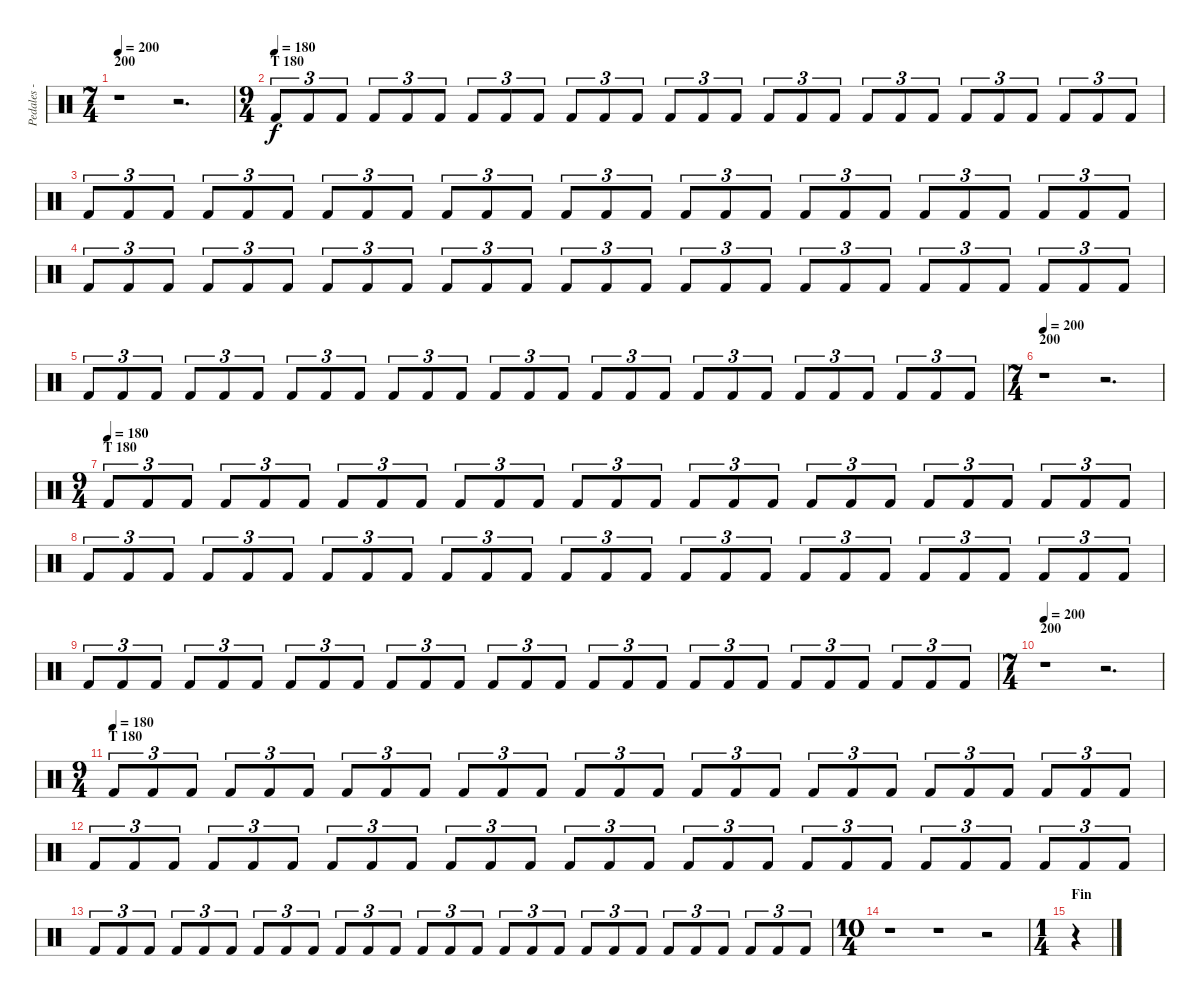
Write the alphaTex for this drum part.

\track ("Pedales - Compa" "Pedales - ") {instrument percussion}
\staff {score}
\articulation defaults
\ts (7 4)
\section ("" "200")
\tempo 200
\clef neutral
\ks c
r.1{dy f} r.2{d} |
\ts (9 4)
\section ("" "T 180")
\tempo (180)
"Kick (hit) 2".8{tu (3 2)} "Kick (hit) 2".8{tu (3 2)} "Kick (hit) 2".8{tu (3 2)} "Kick (hit) 2".8{tu (3 2)} "Kick (hit) 2".8{tu (3 2)} "Kick (hit) 2".8{tu (3 2)} "Kick (hit) 2".8{tu (3 2)} "Kick (hit) 2".8{tu (3 2)} "Kick (hit) 2".8{tu (3 2)} "Kick (hit) 2".8{tu (3 2)} "Kick (hit) 2".8{tu (3 2)} "Kick (hit) 2".8{tu (3 2)} "Kick (hit) 2".8{tu (3 2)} "Kick (hit) 2".8{tu (3 2)} "Kick (hit) 2".8{tu (3 2)} "Kick (hit) 2".8{tu (3 2)} "Kick (hit) 2".8{tu (3 2)} "Kick (hit) 2".8{tu (3 2)} "Kick (hit) 2".8{tu (3 2)} "Kick (hit) 2".8{tu (3 2)} "Kick (hit) 2".8{tu (3 2)} "Kick (hit) 2".8{tu (3 2)} "Kick (hit) 2".8{tu (3 2)} "Kick (hit) 2".8{tu (3 2)} "Kick (hit) 2".8{tu (3 2)} "Kick (hit) 2".8{tu (3 2)} "Kick (hit) 2".8{tu (3 2)} |
"Kick (hit) 2".8{tu (3 2)} "Kick (hit) 2".8{tu (3 2)} "Kick (hit) 2".8{tu (3 2)} "Kick (hit) 2".8{tu (3 2)} "Kick (hit) 2".8{tu (3 2)} "Kick (hit) 2".8{tu (3 2)} "Kick (hit) 2".8{tu (3 2)} "Kick (hit) 2".8{tu (3 2)} "Kick (hit) 2".8{tu (3 2)} "Kick (hit) 2".8{tu (3 2)} "Kick (hit) 2".8{tu (3 2)} "Kick (hit) 2".8{tu (3 2)} "Kick (hit) 2".8{tu (3 2)} "Kick (hit) 2".8{tu (3 2)} "Kick (hit) 2".8{tu (3 2)} "Kick (hit) 2".8{tu (3 2)} "Kick (hit) 2".8{tu (3 2)} "Kick (hit) 2".8{tu (3 2)} "Kick (hit) 2".8{tu (3 2)} "Kick (hit) 2".8{tu (3 2)} "Kick (hit) 2".8{tu (3 2)} "Kick (hit) 2".8{tu (3 2)} "Kick (hit) 2".8{tu (3 2)} "Kick (hit) 2".8{tu (3 2)} "Kick (hit) 2".8{tu (3 2)} "Kick (hit) 2".8{tu (3 2)} "Kick (hit) 2".8{tu (3 2)} |
"Kick (hit) 2".8{tu (3 2)} "Kick (hit) 2".8{tu (3 2)} "Kick (hit) 2".8{tu (3 2)} "Kick (hit) 2".8{tu (3 2)} "Kick (hit) 2".8{tu (3 2)} "Kick (hit) 2".8{tu (3 2)} "Kick (hit) 2".8{tu (3 2)} "Kick (hit) 2".8{tu (3 2)} "Kick (hit) 2".8{tu (3 2)} "Kick (hit) 2".8{tu (3 2)} "Kick (hit) 2".8{tu (3 2)} "Kick (hit) 2".8{tu (3 2)} "Kick (hit) 2".8{tu (3 2)} "Kick (hit) 2".8{tu (3 2)} "Kick (hit) 2".8{tu (3 2)} "Kick (hit) 2".8{tu (3 2)} "Kick (hit) 2".8{tu (3 2)} "Kick (hit) 2".8{tu (3 2)} "Kick (hit) 2".8{tu (3 2)} "Kick (hit) 2".8{tu (3 2)} "Kick (hit) 2".8{tu (3 2)} "Kick (hit) 2".8{tu (3 2)} "Kick (hit) 2".8{tu (3 2)} "Kick (hit) 2".8{tu (3 2)} "Kick (hit) 2".8{tu (3 2)} "Kick (hit) 2".8{tu (3 2)} "Kick (hit) 2".8{tu (3 2)} |
"Kick (hit) 2".8{tu (3 2)} "Kick (hit) 2".8{tu (3 2)} "Kick (hit) 2".8{tu (3 2)} "Kick (hit) 2".8{tu (3 2)} "Kick (hit) 2".8{tu (3 2)} "Kick (hit) 2".8{tu (3 2)} "Kick (hit) 2".8{tu (3 2)} "Kick (hit) 2".8{tu (3 2)} "Kick (hit) 2".8{tu (3 2)} "Kick (hit) 2".8{tu (3 2)} "Kick (hit) 2".8{tu (3 2)} "Kick (hit) 2".8{tu (3 2)} "Kick (hit) 2".8{tu (3 2)} "Kick (hit) 2".8{tu (3 2)} "Kick (hit) 2".8{tu (3 2)} "Kick (hit) 2".8{tu (3 2)} "Kick (hit) 2".8{tu (3 2)} "Kick (hit) 2".8{tu (3 2)} "Kick (hit) 2".8{tu (3 2)} "Kick (hit) 2".8{tu (3 2)} "Kick (hit) 2".8{tu (3 2)} "Kick (hit) 2".8{tu (3 2)} "Kick (hit) 2".8{tu (3 2)} "Kick (hit) 2".8{tu (3 2)} "Kick (hit) 2".8{tu (3 2)} "Kick (hit) 2".8{tu (3 2)} "Kick (hit) 2".8{tu (3 2)} |
\ts (7 4)
\section ("" "200")
\tempo 200
r.1 r.2{d} |
\ts (9 4)
\section ("" "T 180")
\tempo (180)
"Kick (hit) 2".8{tu (3 2)} "Kick (hit) 2".8{tu (3 2)} "Kick (hit) 2".8{tu (3 2)} "Kick (hit) 2".8{tu (3 2)} "Kick (hit) 2".8{tu (3 2)} "Kick (hit) 2".8{tu (3 2)} "Kick (hit) 2".8{tu (3 2)} "Kick (hit) 2".8{tu (3 2)} "Kick (hit) 2".8{tu (3 2)} "Kick (hit) 2".8{tu (3 2)} "Kick (hit) 2".8{tu (3 2)} "Kick (hit) 2".8{tu (3 2)} "Kick (hit) 2".8{tu (3 2)} "Kick (hit) 2".8{tu (3 2)} "Kick (hit) 2".8{tu (3 2)} "Kick (hit) 2".8{tu (3 2)} "Kick (hit) 2".8{tu (3 2)} "Kick (hit) 2".8{tu (3 2)} "Kick (hit) 2".8{tu (3 2)} "Kick (hit) 2".8{tu (3 2)} "Kick (hit) 2".8{tu (3 2)} "Kick (hit) 2".8{tu (3 2)} "Kick (hit) 2".8{tu (3 2)} "Kick (hit) 2".8{tu (3 2)} "Kick (hit) 2".8{tu (3 2)} "Kick (hit) 2".8{tu (3 2)} "Kick (hit) 2".8{tu (3 2)} |
"Kick (hit) 2".8{tu (3 2)} "Kick (hit) 2".8{tu (3 2)} "Kick (hit) 2".8{tu (3 2)} "Kick (hit) 2".8{tu (3 2)} "Kick (hit) 2".8{tu (3 2)} "Kick (hit) 2".8{tu (3 2)} "Kick (hit) 2".8{tu (3 2)} "Kick (hit) 2".8{tu (3 2)} "Kick (hit) 2".8{tu (3 2)} "Kick (hit) 2".8{tu (3 2)} "Kick (hit) 2".8{tu (3 2)} "Kick (hit) 2".8{tu (3 2)} "Kick (hit) 2".8{tu (3 2)} "Kick (hit) 2".8{tu (3 2)} "Kick (hit) 2".8{tu (3 2)} "Kick (hit) 2".8{tu (3 2)} "Kick (hit) 2".8{tu (3 2)} "Kick (hit) 2".8{tu (3 2)} "Kick (hit) 2".8{tu (3 2)} "Kick (hit) 2".8{tu (3 2)} "Kick (hit) 2".8{tu (3 2)} "Kick (hit) 2".8{tu (3 2)} "Kick (hit) 2".8{tu (3 2)} "Kick (hit) 2".8{tu (3 2)} "Kick (hit) 2".8{tu (3 2)} "Kick (hit) 2".8{tu (3 2)} "Kick (hit) 2".8{tu (3 2)} |
"Kick (hit) 2".8{tu (3 2)} "Kick (hit) 2".8{tu (3 2)} "Kick (hit) 2".8{tu (3 2)} "Kick (hit) 2".8{tu (3 2)} "Kick (hit) 2".8{tu (3 2)} "Kick (hit) 2".8{tu (3 2)} "Kick (hit) 2".8{tu (3 2)} "Kick (hit) 2".8{tu (3 2)} "Kick (hit) 2".8{tu (3 2)} "Kick (hit) 2".8{tu (3 2)} "Kick (hit) 2".8{tu (3 2)} "Kick (hit) 2".8{tu (3 2)} "Kick (hit) 2".8{tu (3 2)} "Kick (hit) 2".8{tu (3 2)} "Kick (hit) 2".8{tu (3 2)} "Kick (hit) 2".8{tu (3 2)} "Kick (hit) 2".8{tu (3 2)} "Kick (hit) 2".8{tu (3 2)} "Kick (hit) 2".8{tu (3 2)} "Kick (hit) 2".8{tu (3 2)} "Kick (hit) 2".8{tu (3 2)} "Kick (hit) 2".8{tu (3 2)} "Kick (hit) 2".8{tu (3 2)} "Kick (hit) 2".8{tu (3 2)} "Kick (hit) 2".8{tu (3 2)} "Kick (hit) 2".8{tu (3 2)} "Kick (hit) 2".8{tu (3 2)} |
\ts (7 4)
\section ("" "200")
\tempo 200
r.1 r.2{d} |
\ts (9 4)
\section ("" "T 180")
\tempo (180)
"Kick (hit) 2".8{tu (3 2)} "Kick (hit) 2".8{tu (3 2)} "Kick (hit) 2".8{tu (3 2)} "Kick (hit) 2".8{tu (3 2)} "Kick (hit) 2".8{tu (3 2)} "Kick (hit) 2".8{tu (3 2)} "Kick (hit) 2".8{tu (3 2)} "Kick (hit) 2".8{tu (3 2)} "Kick (hit) 2".8{tu (3 2)} "Kick (hit) 2".8{tu (3 2)} "Kick (hit) 2".8{tu (3 2)} "Kick (hit) 2".8{tu (3 2)} "Kick (hit) 2".8{tu (3 2)} "Kick (hit) 2".8{tu (3 2)} "Kick (hit) 2".8{tu (3 2)} "Kick (hit) 2".8{tu (3 2)} "Kick (hit) 2".8{tu (3 2)} "Kick (hit) 2".8{tu (3 2)} "Kick (hit) 2".8{tu (3 2)} "Kick (hit) 2".8{tu (3 2)} "Kick (hit) 2".8{tu (3 2)} "Kick (hit) 2".8{tu (3 2)} "Kick (hit) 2".8{tu (3 2)} "Kick (hit) 2".8{tu (3 2)} "Kick (hit) 2".8{tu (3 2)} "Kick (hit) 2".8{tu (3 2)} "Kick (hit) 2".8{tu (3 2)} |
"Kick (hit) 2".8{tu (3 2)} "Kick (hit) 2".8{tu (3 2)} "Kick (hit) 2".8{tu (3 2)} "Kick (hit) 2".8{tu (3 2)} "Kick (hit) 2".8{tu (3 2)} "Kick (hit) 2".8{tu (3 2)} "Kick (hit) 2".8{tu (3 2)} "Kick (hit) 2".8{tu (3 2)} "Kick (hit) 2".8{tu (3 2)} "Kick (hit) 2".8{tu (3 2)} "Kick (hit) 2".8{tu (3 2)} "Kick (hit) 2".8{tu (3 2)} "Kick (hit) 2".8{tu (3 2)} "Kick (hit) 2".8{tu (3 2)} "Kick (hit) 2".8{tu (3 2)} "Kick (hit) 2".8{tu (3 2)} "Kick (hit) 2".8{tu (3 2)} "Kick (hit) 2".8{tu (3 2)} "Kick (hit) 2".8{tu (3 2)} "Kick (hit) 2".8{tu (3 2)} "Kick (hit) 2".8{tu (3 2)} "Kick (hit) 2".8{tu (3 2)} "Kick (hit) 2".8{tu (3 2)} "Kick (hit) 2".8{tu (3 2)} "Kick (hit) 2".8{tu (3 2)} "Kick (hit) 2".8{tu (3 2)} "Kick (hit) 2".8{tu (3 2)} |
"Kick (hit) 2".8{tu (3 2)} "Kick (hit) 2".8{tu (3 2)} "Kick (hit) 2".8{tu (3 2)} "Kick (hit) 2".8{tu (3 2)} "Kick (hit) 2".8{tu (3 2)} "Kick (hit) 2".8{tu (3 2)} "Kick (hit) 2".8{tu (3 2)} "Kick (hit) 2".8{tu (3 2)} "Kick (hit) 2".8{tu (3 2)} "Kick (hit) 2".8{tu (3 2)} "Kick (hit) 2".8{tu (3 2)} "Kick (hit) 2".8{tu (3 2)} "Kick (hit) 2".8{tu (3 2)} "Kick (hit) 2".8{tu (3 2)} "Kick (hit) 2".8{tu (3 2)} "Kick (hit) 2".8{tu (3 2)} "Kick (hit) 2".8{tu (3 2)} "Kick (hit) 2".8{tu (3 2)} "Kick (hit) 2".8{tu (3 2)} "Kick (hit) 2".8{tu (3 2)} "Kick (hit) 2".8{tu (3 2)} "Kick (hit) 2".8{tu (3 2)} "Kick (hit) 2".8{tu (3 2)} "Kick (hit) 2".8{tu (3 2)} "Kick (hit) 2".8{tu (3 2)} "Kick (hit) 2".8{tu (3 2)} "Kick (hit) 2".8{tu (3 2)} |
\ts (10 4)
r.1 r.1 r.2 |
\ts (1 4)
\section ("" "Fin")
r.4
